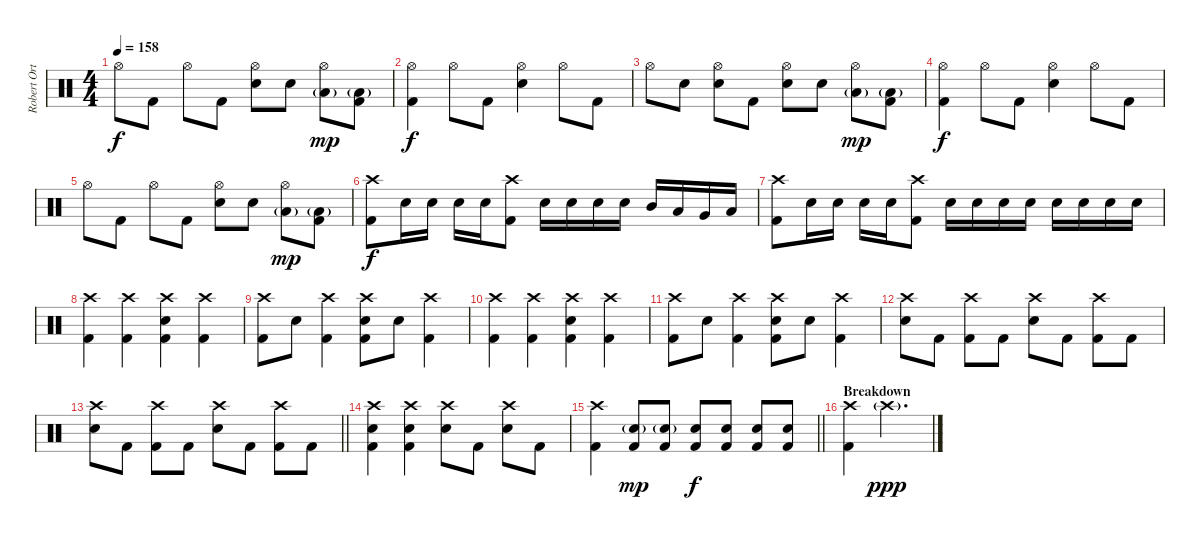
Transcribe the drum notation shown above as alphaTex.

\track ("Robert Ortiz [Drums]" "Robert Ort") {instrument percussion}
\staff {score}
\articulation defaults
\ts (4 4)
\tempo 158
\clef neutral
\ks c "Hi-Hat (open)".8{dy f} "Kick (hit) 2".8 "Hi-Hat (open)".8 "Kick (hit) 2".8
("Hi-Hat (open)" "Electric Snare (hit)").8 "Electric Snare (hit)".8 ("Hi-Hat (open)" "Low Tom (hit)"{g}).8{dy mp} ("Low Tom (hit)"{g} "Kick (hit) 2").8 |
("Hi-Hat (open)" "Kick (hit) 2").4{dy f} "Hi-Hat (open)".8 "Kick (hit) 2".8 ("Hi-Hat (open)" "Electric Snare (hit)").4 "Hi-Hat (open)".8 "Kick (hit) 2".8 |
"Hi-Hat (open)".8 "Electric Snare (hit)".8 ("Hi-Hat (open)" "Electric Snare (hit)").8 "Kick (hit) 2".8 ("Hi-Hat (open)" "Electric Snare (hit)").8 "Electric Snare (hit)".8 ("Hi-Hat (open)" "Low Tom (hit)"{g}).8{dy mp} ("Low Tom (hit)"{g} "Kick (hit) 2").8 |
("Hi-Hat (open)" "Kick (hit) 2").4{dy f} "Hi-Hat (open)".8 "Kick (hit) 2".8 ("Hi-Hat (open)" "Electric Snare (hit)").4 "Hi-Hat (open)".8 "Kick (hit) 2".8 |
"Hi-Hat (open)".8 "Kick (hit) 2".8 "Hi-Hat (open)".8 "Kick (hit) 2".8 ("Hi-Hat (open)" "Electric Snare (hit)").8 "Electric Snare (hit)".8 ("Hi-Hat (open)" "Low Tom (hit)"{g}).8{dy mp} ("Low Tom (hit)"{g} "Kick (hit) 2").8 |
("Crash high (hit)" "Kick (hit) 2").8{dy f} "Electric Snare (hit)".16 "Electric Snare (hit)".16 "Electric Snare (hit)".16 "Electric Snare (hit)".16 ("Crash high (hit)" "Kick (hit) 2").8 "Electric Snare (hit)".16 "Electric Snare (hit)".16 "Electric Snare (hit)".16 "Electric Snare (hit)".16 "Mid Tom (hit)".16 "Low Tom (hit)".16 "Very Low Tom (hit)".16 "Low Floor Tom (hit)".16 |
("Crash high (hit)" "Kick (hit) 2").8 "Electric Snare (hit)".16 "Electric Snare (hit)".16 "Electric Snare (hit)".16 "Electric Snare (hit)".16 ("Crash high (hit)" "Kick (hit) 2").8 "Electric Snare (hit)".16 "Electric Snare (hit)".16 "Electric Snare (hit)".16 "Electric Snare (hit)".16 "Electric Snare (hit)".16 "Electric Snare (hit)".16 "Electric Snare (hit)".16 "Electric Snare (hit)".16 |
("Crash high (hit)" "Kick (hit) 2").4 ("Crash high (hit)" "Kick (hit) 2").4 ("Crash high (hit)" "Electric Snare (hit)" "Kick (hit) 2").4 ("Crash high (hit)" "Kick (hit) 2").4 |
("Crash high (hit)" "Kick (hit) 2").8 "Electric Snare (hit)".8 ("Crash high (hit)" "Kick (hit) 2").4 ("Crash high (hit)" "Electric Snare (hit)" "Kick (hit) 2").8 "Electric Snare (hit)".8 ("Crash high (hit)" "Kick (hit) 2").4 |
("Crash high (hit)" "Kick (hit) 2").4 ("Crash high (hit)" "Kick (hit) 2").4 ("Crash high (hit)" "Electric Snare (hit)" "Kick (hit) 2").4 ("Crash high (hit)" "Kick (hit) 2").4 |
("Crash high (hit)" "Kick (hit) 2").8 "Electric Snare (hit)".8 ("Crash high (hit)" "Kick (hit) 2").4 ("Crash high (hit)" "Electric Snare (hit)" "Kick (hit) 2").8 "Electric Snare (hit)".8 ("Crash high (hit)" "Kick (hit) 2").4 |
("Crash high (hit)" "Electric Snare (hit)").8 "Kick (hit) 2".8 ("Crash high (hit)" "Kick (hit) 2").8 "Kick (hit) 2".8 ("Crash high (hit)" "Electric Snare (hit)").8 "Kick (hit) 2".8 ("Crash high (hit)" "Kick (hit) 2").8 "Kick (hit) 2".8 |
\barLineRight lightlight
("Crash high (hit)" "Electric Snare (hit)").8 "Kick (hit) 2".8 ("Crash high (hit)" "Kick (hit) 2").8 "Kick (hit) 2".8 ("Crash high (hit)" "Electric Snare (hit)").8 "Kick (hit) 2".8 ("Crash high (hit)" "Kick (hit) 2").8 "Kick (hit) 2".8 |
("Crash high (hit)" "Electric Snare (hit)" "Kick (hit) 2").4 ("Crash high (hit)" "Electric Snare (hit)" "Kick (hit) 2").4 ("Crash high (hit)" "Electric Snare (hit)").8 "Kick (hit) 2".8 ("Crash high (hit)" "Electric Snare (hit)").8 "Kick (hit) 2".8 |
\barLineRight lightlight
("Crash high (hit)" "Kick (hit) 2").4 ("Electric Snare (hit)"{g} "Kick (hit) 2").8{dy mp} ("Electric Snare (hit)"{g} "Kick (hit) 2").8 ("Electric Snare (hit)" "Kick (hit) 2").8{dy f} ("Electric Snare (hit)" "Kick (hit) 2").8 ("Electric Snare (hit)" "Kick (hit) 2").8 ("Electric Snare (hit)" "Kick (hit) 2").8 |
\section ("" "Breakdown")
("Crash high (hit)" "Kick (hit) 2").4 "Crash high (hit)"{g}.2{d dy ppp}
